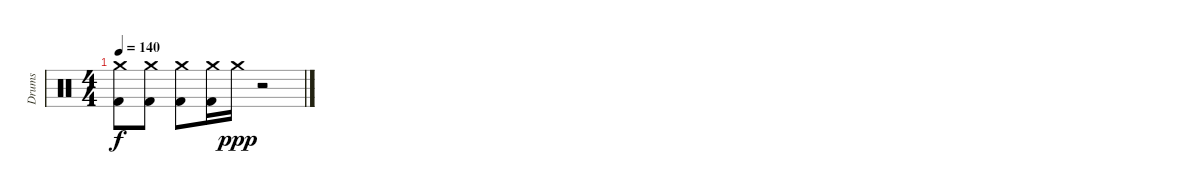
\track ("Drums" "Drums") {instrument percussion}
\staff {score}
\articulation defaults
\ts (4 4)
\tempo 140
\clef neutral
\ks c
("Crash medium (hit)" "Kick (hit) 2").8{dy f} ("Crash medium (hit)" "Kick (hit) 2").8 ("Crash medium (hit)" "Kick (hit) 2").8 ("Crash medium (hit)" "Kick (hit) 2").16 "Crash medium (hit)".16{dy ppp} r.2
